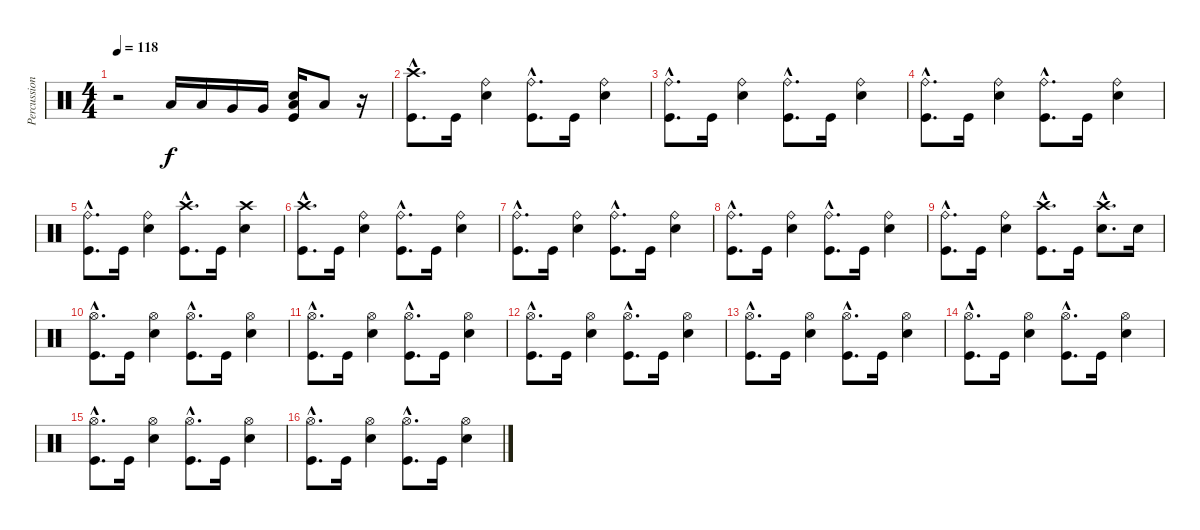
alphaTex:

\track ("Percussion" "Percussion") {instrument percussion}
\staff {score}
\articulation defaults
\ts (4 4)
\tempo 118
\clef neutral
\ks c
r.2{dy f} "Low Tom (hit)".16 "Low Tom (hit)".16 "Very Low Tom (hit)".16 "Very Low Tom (hit)".16 ("Electric Snare (hit)" "Low Floor Tom (hit)" "Kick (hit)").16 "Low Floor Tom (hit)".8 r.16 |
("Crash high (hit)"{hac} "Kick (hit)"{hac}).8{d} "Kick (hit)".16 ("Ride (bell)" "Snare (hit) 2").4 ("Ride (bell)"{hac} "Kick (hit)"{hac}).8{d} "Kick (hit)".16 ("Ride (bell)" "Snare (hit) 2").4 |
("Ride (bell)"{hac} "Kick (hit)"{hac}).8{d} "Kick (hit)".16 ("Ride (bell)" "Snare (hit) 2").4 ("Ride (bell)"{hac} "Kick (hit)"{hac}).8{d} "Kick (hit)".16 ("Ride (bell)" "Snare (hit) 2").4 |
("Ride (bell)"{hac} "Kick (hit)"{hac}).8{d} "Kick (hit)".16 ("Ride (bell)" "Snare (hit) 2").4 ("Ride (bell)"{hac} "Kick (hit)"{hac}).8{d} "Kick (hit)".16 ("Ride (bell)" "Snare (hit) 2").4 |
("Ride (bell)"{hac} "Kick (hit)"{hac}).8{d} "Kick (hit)".16 ("Ride (bell)" "Snare (hit) 2").4 ("Crash high (hit)"{hac} "Kick (hit)"{hac}).8{d} "Kick (hit)".16 ("Crash high (hit)" "Snare (hit) 2").4 |
("Crash high (hit)"{hac} "Kick (hit)"{hac}).8{d} "Kick (hit)".16 ("Ride (bell)" "Snare (hit) 2").4 ("Ride (bell)"{hac} "Kick (hit)"{hac}).8{d} "Kick (hit)".16 ("Ride (bell)" "Snare (hit) 2").4 |
("Ride (bell)"{hac} "Kick (hit)"{hac}).8{d} "Kick (hit)".16 ("Ride (bell)" "Snare (hit) 2").4 ("Ride (bell)"{hac} "Kick (hit)"{hac}).8{d} "Kick (hit)".16 ("Ride (bell)" "Snare (hit) 2").4 |
("Ride (bell)"{hac} "Kick (hit)"{hac}).8{d} "Kick (hit)".16 ("Ride (bell)" "Snare (hit) 2").4 ("Ride (bell)"{hac} "Kick (hit)"{hac}).8{d} "Kick (hit)".16 ("Ride (bell)" "Snare (hit) 2").4 |
("Ride (bell)"{hac} "Kick (hit)"{hac}).8{d} "Kick (hit)".16 ("Ride (bell)" "Snare (hit) 2").4 ("Crash high (hit)"{hac} "Kick (hit)"{hac}).8{d} "Kick (hit)".16 ("Crash high (hit)"{hac} "Snare (hit) 2"{hac}).8{d} "Snare (hit) 2".16 |
("Hi-Hat (open)"{hac} "Kick (hit)"{hac}).8{d} "Kick (hit)".16 ("Hi-Hat (open)" "Snare (hit) 2").4 ("Hi-Hat (open)"{hac} "Kick (hit)"{hac}).8{d} "Kick (hit)".16 ("Hi-Hat (open)" "Snare (hit) 2").4 |
("Hi-Hat (open)"{hac} "Kick (hit)"{hac}).8{d} "Kick (hit)".16 ("Hi-Hat (open)" "Snare (hit) 2").4 ("Hi-Hat (open)"{hac} "Kick (hit)"{hac}).8{d} "Kick (hit)".16 ("Hi-Hat (open)" "Snare (hit) 2").4 |
("Hi-Hat (open)"{hac} "Kick (hit)"{hac}).8{d} "Kick (hit)".16 ("Hi-Hat (open)" "Snare (hit) 2").4 ("Hi-Hat (open)"{hac} "Kick (hit)"{hac}).8{d} "Kick (hit)".16 ("Hi-Hat (open)" "Snare (hit) 2").4 |
("Hi-Hat (open)"{hac} "Kick (hit)"{hac}).8{d} "Kick (hit)".16 ("Hi-Hat (open)" "Snare (hit) 2").4 ("Hi-Hat (open)"{hac} "Kick (hit)"{hac}).8{d} "Kick (hit)".16 ("Hi-Hat (open)" "Snare (hit) 2").4 |
("Hi-Hat (open)"{hac} "Kick (hit)"{hac}).8{d} "Kick (hit)".16 ("Hi-Hat (open)" "Snare (hit) 2").4 ("Hi-Hat (open)"{hac} "Kick (hit)"{hac}).8{d} "Kick (hit)".16 ("Hi-Hat (open)" "Snare (hit) 2").4 |
("Hi-Hat (open)"{hac} "Kick (hit)"{hac}).8{d} "Kick (hit)".16 ("Hi-Hat (open)" "Snare (hit) 2").4 ("Hi-Hat (open)"{hac} "Kick (hit)"{hac}).8{d} "Kick (hit)".16 ("Hi-Hat (open)" "Snare (hit) 2").4 |
("Hi-Hat (open)"{hac} "Kick (hit)"{hac}).8{d} "Kick (hit)".16 ("Hi-Hat (open)" "Snare (hit) 2").4 ("Hi-Hat (open)"{hac} "Kick (hit)"{hac}).8{d} "Kick (hit)".16 ("Hi-Hat (open)" "Snare (hit) 2").4
